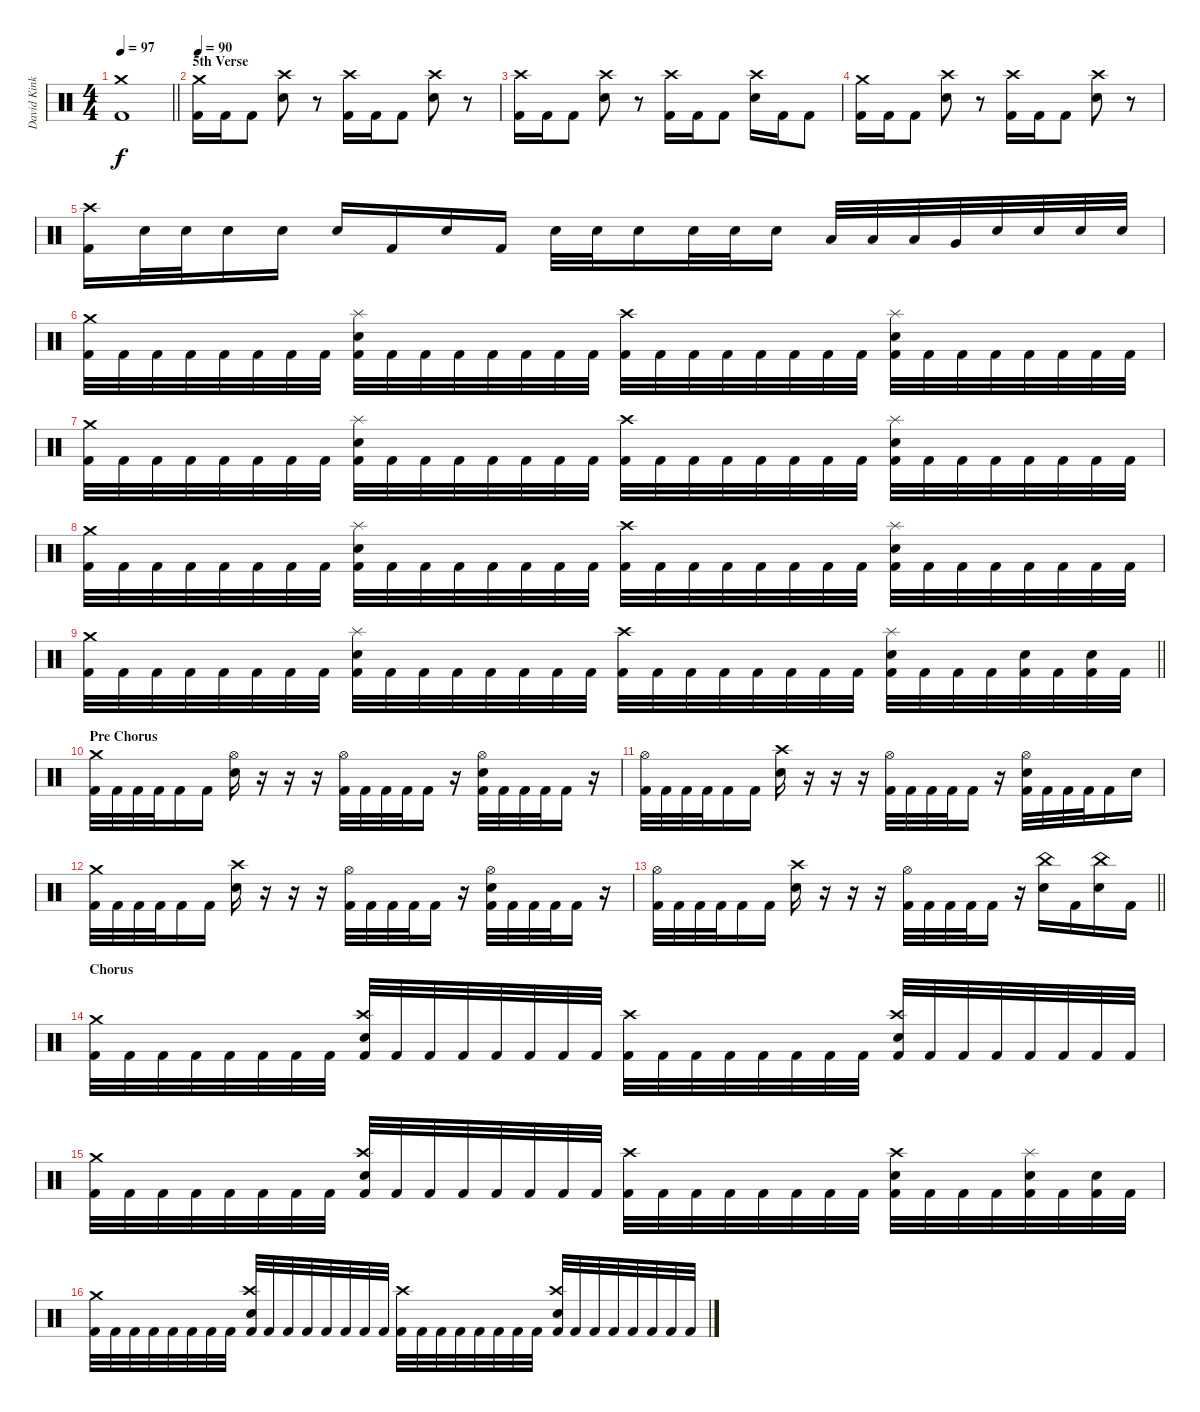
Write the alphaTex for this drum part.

\track ("David Kinkade" "David Kink") {instrument percussion}
\staff {score}
\articulation defaults
\ts (4 4)
\tempo 97
\clef neutral
\barLineRight lightlight
\ks c
("Crash medium (hit)" "Kick (hit) 2").1{dy f} |
\section ("" "5th Verse")
\tempo 90
("Crash medium (hit)" "Kick (hit) 2").16 "Kick (hit) 2".16 "Kick (hit) 2".8 ("Crash high (hit)" "Snare (hit) 2").8 r.8 ("Crash high (hit)" "Kick (hit) 2").16 "Kick (hit) 2".16 "Kick (hit) 2".8 ("Crash high (hit)" "Snare (hit) 2").8 r.8 |
("Crash high (hit)" "Kick (hit) 2").16 "Kick (hit) 2".16 "Kick (hit) 2".8 ("Crash high (hit)" "Snare (hit) 2").8 r.8 ("Crash high (hit)" "Kick (hit) 2").16 "Kick (hit) 2".16 "Kick (hit) 2".8 ("Crash high (hit)" "Snare (hit) 2").16 "Kick (hit) 2".16 "Kick (hit) 2".8 |
("Crash medium (hit)" "Kick (hit) 2").16 "Kick (hit) 2".16 "Kick (hit) 2".8 ("Crash high (hit)" "Snare (hit) 2").8 r.8 ("Crash high (hit)" "Kick (hit) 2").16 "Kick (hit) 2".16 "Kick (hit) 2".8 ("Crash high (hit)" "Snare (hit) 2").8 r.8 |
("Crash high (hit)" "Kick (hit) 2").16 "Snare (hit) 2".32 "Snare (hit) 2".32 "Snare (hit) 2".16 "Snare (hit) 2".16 "Snare (hit) 2".16 "Kick (hit) 2".16 "Snare (hit) 2".16 "Kick (hit) 2".16 "Snare (hit) 2".32 "Snare (hit) 2".32 "Snare (hit) 2".16 "Snare (hit) 2".32 "Snare (hit) 2".32 "Snare (hit) 2".16 "Low Tom (hit)".32 "Low Tom (hit)".32 "Low Tom (hit)".32 "Very Low Tom (hit)".32 "Snare (hit) 2".32 "Snare (hit) 2".32 "Snare (hit) 2".32 "Snare (hit) 2".32 |
("Crash medium (hit)" "Kick (hit) 2").32 "Kick (hit) 2".32 "Kick (hit) 2".32 "Kick (hit) 2".32 "Kick (hit) 2".32 "Kick (hit) 2".32 "Kick (hit) 2".32 "Kick (hit) 2".32 ("Splash (hit)" "Snare (hit) 2" "Kick (hit) 2").32 "Kick (hit) 2".32 "Kick (hit) 2".32 "Kick (hit) 2".32 "Kick (hit) 2".32 "Kick (hit) 2".32 "Kick (hit) 2".32 "Kick (hit) 2".32 ("Crash high (hit)" "Kick (hit) 2").32 "Kick (hit) 2".32 "Kick (hit) 2".32 "Kick (hit) 2".32 "Kick (hit) 2".32 "Kick (hit) 2".32 "Kick (hit) 2".32 "Kick (hit) 2".32 ("Splash (hit)" "Snare (hit) 2" "Kick (hit) 2").32 "Kick (hit) 2".32 "Kick (hit) 2".32 "Kick (hit) 2".32 "Kick (hit) 2".32 "Kick (hit) 2".32 "Kick (hit) 2".32 "Kick (hit) 2".32 |
("Crash medium (hit)" "Kick (hit) 2").32 "Kick (hit) 2".32 "Kick (hit) 2".32 "Kick (hit) 2".32 "Kick (hit) 2".32 "Kick (hit) 2".32 "Kick (hit) 2".32 "Kick (hit) 2".32 ("Splash (hit)" "Snare (hit) 2" "Kick (hit) 2").32 "Kick (hit) 2".32 "Kick (hit) 2".32 "Kick (hit) 2".32 "Kick (hit) 2".32 "Kick (hit) 2".32 "Kick (hit) 2".32 "Kick (hit) 2".32 ("Crash high (hit)" "Kick (hit) 2").32 "Kick (hit) 2".32 "Kick (hit) 2".32 "Kick (hit) 2".32 "Kick (hit) 2".32 "Kick (hit) 2".32 "Kick (hit) 2".32 "Kick (hit) 2".32 ("Splash (hit)" "Snare (hit) 2" "Kick (hit) 2").32 "Kick (hit) 2".32 "Kick (hit) 2".32 "Kick (hit) 2".32 "Kick (hit) 2".32 "Kick (hit) 2".32 "Kick (hit) 2".32 "Kick (hit) 2".32 |
("Crash medium (hit)" "Kick (hit) 2").32 "Kick (hit) 2".32 "Kick (hit) 2".32 "Kick (hit) 2".32 "Kick (hit) 2".32 "Kick (hit) 2".32 "Kick (hit) 2".32 "Kick (hit) 2".32 ("Splash (hit)" "Snare (hit) 2" "Kick (hit) 2").32 "Kick (hit) 2".32 "Kick (hit) 2".32 "Kick (hit) 2".32 "Kick (hit) 2".32 "Kick (hit) 2".32 "Kick (hit) 2".32 "Kick (hit) 2".32 ("Crash high (hit)" "Kick (hit) 2").32 "Kick (hit) 2".32 "Kick (hit) 2".32 "Kick (hit) 2".32 "Kick (hit) 2".32 "Kick (hit) 2".32 "Kick (hit) 2".32 "Kick (hit) 2".32 ("Splash (hit)" "Snare (hit) 2" "Kick (hit) 2").32 "Kick (hit) 2".32 "Kick (hit) 2".32 "Kick (hit) 2".32 "Kick (hit) 2".32 "Kick (hit) 2".32 "Kick (hit) 2".32 "Kick (hit) 2".32 |
\barLineRight lightlight
("Crash medium (hit)" "Kick (hit) 2").32 "Kick (hit) 2".32 "Kick (hit) 2".32 "Kick (hit) 2".32 "Kick (hit) 2".32 "Kick (hit) 2".32 "Kick (hit) 2".32 "Kick (hit) 2".32 ("Splash (hit)" "Snare (hit) 2" "Kick (hit) 2").32 "Kick (hit) 2".32 "Kick (hit) 2".32 "Kick (hit) 2".32 "Kick (hit) 2".32 "Kick (hit) 2".32 "Kick (hit) 2".32 "Kick (hit) 2".32 ("Crash high (hit)" "Kick (hit) 2").32 "Kick (hit) 2".32 "Kick (hit) 2".32 "Kick (hit) 2".32 "Kick (hit) 2".32 "Kick (hit) 2".32 "Kick (hit) 2".32 "Kick (hit) 2".32 ("Splash (hit)" "Snare (hit) 2" "Kick (hit) 2").32 "Kick (hit) 2".32 "Kick (hit) 2".32 "Kick (hit) 2".32 ("Snare (hit) 2" "Kick (hit) 2").32 "Kick (hit) 2".32 ("Snare (hit) 2" "Kick (hit) 2").32 "Kick (hit) 2".32 |
\section ("" "Pre Chorus")
("Crash medium (hit)" "Kick (hit) 2").32 "Kick (hit) 2".32 "Kick (hit) 2".32 "Kick (hit) 2".32 "Kick (hit) 2".16 "Kick (hit) 2".16 ("Hi-Hat (open)" "Snare (hit) 2").16 r.16 r.16 r.16 ("Hi-Hat (open)" "Kick (hit) 2").32 "Kick (hit) 2".32 "Kick (hit) 2".32 "Kick (hit) 2".32 "Kick (hit) 2".16 r.16 ("Hi-Hat (open)" "Snare (hit) 2" "Kick (hit) 2").32 "Kick (hit) 2".32 "Kick (hit) 2".32 "Kick (hit) 2".32 "Kick (hit) 2".16 r.16 |
("Hi-Hat (open)" "Kick (hit) 2").32 "Kick (hit) 2".32 "Kick (hit) 2".32 "Kick (hit) 2".32 "Kick (hit) 2".16 "Kick (hit) 2".16 ("Crash high (hit)" "Snare (hit) 2").16 r.16 r.16 r.16 ("Hi-Hat (open)" "Kick (hit) 2").32 "Kick (hit) 2".32 "Kick (hit) 2".32 "Kick (hit) 2".32 "Kick (hit) 2".16 r.16 ("Hi-Hat (open)" "Snare (hit) 2" "Kick (hit) 2").32 "Kick (hit) 2".32 "Kick (hit) 2".32 "Kick (hit) 2".32 "Kick (hit) 2".16 "Snare (hit) 2".16 |
("Crash medium (hit)" "Kick (hit) 2").32 "Kick (hit) 2".32 "Kick (hit) 2".32 "Kick (hit) 2".32 "Kick (hit) 2".16 "Kick (hit) 2".16 ("Crash high (hit)" "Snare (hit) 2").16 r.16 r.16 r.16 ("Hi-Hat (open)" "Kick (hit) 2").32 "Kick (hit) 2".32 "Kick (hit) 2".32 "Kick (hit) 2".32 "Kick (hit) 2".16 r.16 ("Hi-Hat (open)" "Snare (hit) 2" "Kick (hit) 2").32 "Kick (hit) 2".32 "Kick (hit) 2".32 "Kick (hit) 2".32 "Kick (hit) 2".16 r.16 |
\barLineRight lightlight
("Hi-Hat (open)" "Kick (hit) 2").32 "Kick (hit) 2".32 "Kick (hit) 2".32 "Kick (hit) 2".32 "Kick (hit) 2".16 "Kick (hit) 2".16 ("Crash high (hit)" "Snare (hit) 2").16 r.16 r.16 r.16 ("Hi-Hat (open)" "Kick (hit) 2").32 "Kick (hit) 2".32 "Kick (hit) 2".32 "Kick (hit) 2".32 "Kick (hit) 2".16 r.16 ("China (hit)" "Snare (hit) 2").16 "Kick (hit) 2".16 ("China (hit)" "Snare (hit) 2").16 "Kick (hit) 2".16 |
\section ("" "Chorus")
("Crash medium (hit)" "Kick (hit) 2").32 "Kick (hit) 2".32 "Kick (hit) 2".32 "Kick (hit) 2".32 "Kick (hit) 2".32 "Kick (hit) 2".32 "Kick (hit) 2".32 "Kick (hit) 2".32 ("Crash high (hit)" "Snare (hit) 2" "Kick (hit) 2").32 "Kick (hit) 2".32 "Kick (hit) 2".32 "Kick (hit) 2".32 "Kick (hit) 2".32 "Kick (hit) 2".32 "Kick (hit) 2".32 "Kick (hit) 2".32 ("Crash high (hit)" "Kick (hit) 2").32 "Kick (hit) 2".32 "Kick (hit) 2".32 "Kick (hit) 2".32 "Kick (hit) 2".32 "Kick (hit) 2".32 "Kick (hit) 2".32 "Kick (hit) 2".32 ("Crash high (hit)" "Snare (hit) 2" "Kick (hit) 2").32 "Kick (hit) 2".32 "Kick (hit) 2".32 "Kick (hit) 2".32 "Kick (hit) 2".32 "Kick (hit) 2".32 "Kick (hit) 2".32 "Kick (hit) 2".32 |
("Crash medium (hit)" "Kick (hit) 2").32 "Kick (hit) 2".32 "Kick (hit) 2".32 "Kick (hit) 2".32 "Kick (hit) 2".32 "Kick (hit) 2".32 "Kick (hit) 2".32 "Kick (hit) 2".32 ("Crash high (hit)" "Snare (hit) 2" "Kick (hit) 2").32 "Kick (hit) 2".32 "Kick (hit) 2".32 "Kick (hit) 2".32 "Kick (hit) 2".32 "Kick (hit) 2".32 "Kick (hit) 2".32 "Kick (hit) 2".32 ("Crash high (hit)" "Kick (hit) 2").32 "Kick (hit) 2".32 "Kick (hit) 2".32 "Kick (hit) 2".32 "Kick (hit) 2".32 "Kick (hit) 2".32 "Kick (hit) 2".32 "Kick (hit) 2".32 ("Crash high (hit)" "Snare (hit) 2" "Kick (hit) 2").32 "Kick (hit) 2".32 "Kick (hit) 2".32 "Kick (hit) 2".32 ("Splash (hit)" "Snare (hit) 2" "Kick (hit) 2").32 "Kick (hit) 2".32 ("Snare (hit) 2" "Kick (hit) 2").32 "Kick (hit) 2".32 |
("Crash medium (hit)" "Kick (hit) 2").32 "Kick (hit) 2".32 "Kick (hit) 2".32 "Kick (hit) 2".32 "Kick (hit) 2".32 "Kick (hit) 2".32 "Kick (hit) 2".32 "Kick (hit) 2".32 ("Crash high (hit)" "Snare (hit) 2" "Kick (hit) 2").32 "Kick (hit) 2".32 "Kick (hit) 2".32 "Kick (hit) 2".32 "Kick (hit) 2".32 "Kick (hit) 2".32 "Kick (hit) 2".32 "Kick (hit) 2".32 ("Crash high (hit)" "Kick (hit) 2").32 "Kick (hit) 2".32 "Kick (hit) 2".32 "Kick (hit) 2".32 "Kick (hit) 2".32 "Kick (hit) 2".32 "Kick (hit) 2".32 "Kick (hit) 2".32 ("Crash high (hit)" "Snare (hit) 2" "Kick (hit) 2").32 "Kick (hit) 2".32 "Kick (hit) 2".32 "Kick (hit) 2".32 "Kick (hit) 2".32 "Kick (hit) 2".32 "Kick (hit) 2".32 "Kick (hit) 2".32
